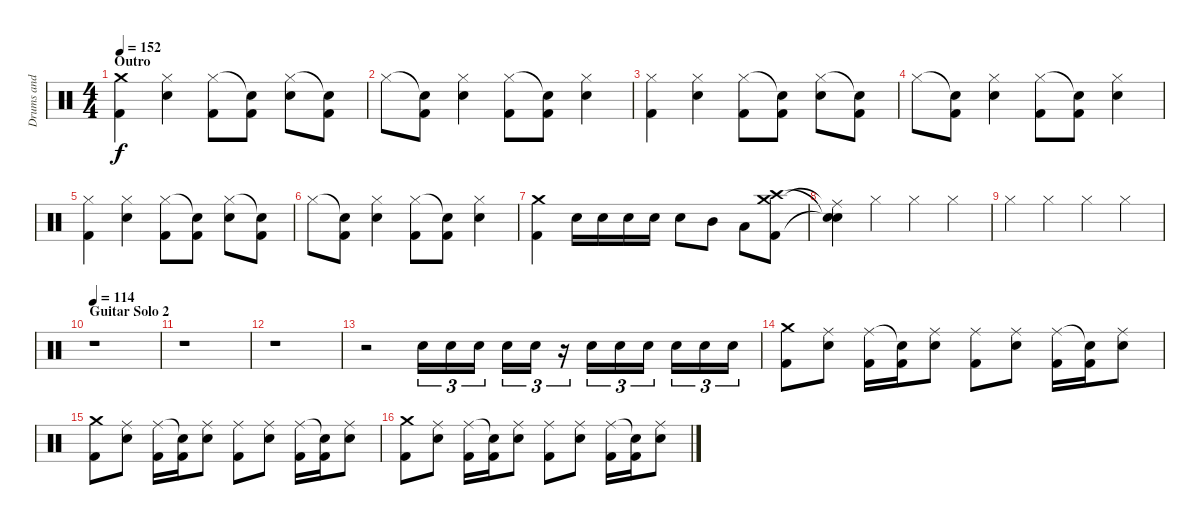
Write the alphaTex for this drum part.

\track ("Drums and Percussion" "Drums and ") {instrument percussion}
\staff {score}
\articulation defaults
\ts (4 4)
\section ("" "Outro")
\tempo 152
\clef neutral
\ks c
("Crash medium (hit)" "Kick (hit) 2").4{dy f} ("Hi-Hat (closed)" "Snare (hit) 2").4 ("Hi-Hat (closed)" "Kick (hit) 2").8 ("Snare (hit)"{t} "Kick (hit) 2").8 ("Hi-Hat (closed)" "Snare (hit) 2").8 ("Snare (hit)"{t} "Kick (hit) 2").8 |
"Hi-Hat (closed)".8 ("Snare (hit)"{t} "Kick (hit) 2").8 ("Hi-Hat (closed)" "Snare (hit) 2").4 ("Hi-Hat (closed)" "Kick (hit) 2").8 ("Snare (hit)"{t} "Kick (hit) 2").8 ("Hi-Hat (closed)" "Snare (hit) 2").4 |
("Hi-Hat (closed)" "Kick (hit) 2").4 ("Hi-Hat (closed)" "Snare (hit) 2").4 ("Hi-Hat (closed)" "Kick (hit) 2").8 ("Snare (hit)"{t} "Kick (hit) 2").8 ("Hi-Hat (closed)" "Snare (hit) 2").8 ("Snare (hit)"{t} "Kick (hit) 2").8 |
"Hi-Hat (closed)".8 ("Snare (hit)"{t} "Kick (hit) 2").8 ("Hi-Hat (closed)" "Snare (hit) 2").4 ("Hi-Hat (closed)" "Kick (hit) 2").8 ("Snare (hit)"{t} "Kick (hit) 2").8 ("Hi-Hat (closed)" "Snare (hit) 2").4 |
("Hi-Hat (closed)" "Kick (hit) 2").4 ("Hi-Hat (closed)" "Snare (hit) 2").4 ("Hi-Hat (closed)" "Kick (hit) 2").8 ("Snare (hit)"{t} "Kick (hit) 2").8 ("Hi-Hat (closed)" "Snare (hit) 2").8 ("Snare (hit)"{t} "Kick (hit) 2").8 |
"Hi-Hat (closed)".8 ("Snare (hit)"{t} "Kick (hit) 2").8 ("Hi-Hat (closed)" "Snare (hit) 2").4 ("Hi-Hat (closed)" "Kick (hit) 2").8 ("Snare (hit)"{t} "Kick (hit) 2").8 ("Hi-Hat (closed)" "Snare (hit) 2").4 |
("Crash medium (hit)" "Kick (hit) 2").4 "Snare (hit) 2".16 "Snare (hit) 2".16 "Snare (hit) 2".16 "Snare (hit) 2".16 "Snare (hit) 2".8 "Mid Tom (hit)".8 "Low Tom (hit)".8 ("Crash medium (hit)" "Crash high (hit)" "Kick (hit) 2").8 |
("Ride (middle)"{t} "Snare (hit)"{t} "Snare (hit)"{t}).4 "Hi-Hat (closed)".4 "Hi-Hat (closed)".4 "Hi-Hat (closed)".4 |
"Hi-Hat (closed)".4 "Hi-Hat (closed)".4 "Hi-Hat (closed)".4 "Hi-Hat (closed)".4 |
\section ("" "Guitar Solo 2")
\tempo 114
r.1 |
r.1 |
r.1 |
r.2 "Snare (hit) 2".16{tu (3 2)} "Snare (hit) 2".16{tu (3 2)} "Snare (hit) 2".16{tu (3 2)} "Snare (hit) 2".16{tu (3 2)} "Snare (hit) 2".16{tu (3 2)} r.16{tu (3 2)} "Snare (hit) 2".16{tu (3 2)} "Snare (hit) 2".16{tu (3 2)} "Snare (hit) 2".16{tu (3 2)} "Snare (hit) 2".16{tu (3 2)} "Snare (hit) 2".16{tu (3 2)} "Snare (hit) 2".16{tu (3 2)} |
("Crash medium (hit)" "Kick (hit) 2").8 ("Ride (middle)" "Snare (hit) 2").8 ("Ride (middle)" "Kick (hit) 2").16 ("Snare (hit)"{t} "Kick (hit) 2").16 ("Ride (middle)" "Snare (hit) 2").8 ("Ride (middle)" "Kick (hit) 2").8 ("Ride (middle)" "Snare (hit) 2").8 ("Ride (middle)" "Kick (hit) 2").16 ("Snare (hit)"{t} "Kick (hit) 2").16 ("Ride (middle)" "Snare (hit) 2").8 |
("Crash medium (hit)" "Kick (hit) 2").8 ("Ride (middle)" "Snare (hit) 2").8 ("Ride (middle)" "Kick (hit) 2").16 ("Snare (hit)"{t} "Kick (hit) 2").16 ("Ride (middle)" "Snare (hit) 2").8 ("Ride (middle)" "Kick (hit) 2").8 ("Ride (middle)" "Snare (hit) 2").8 ("Ride (middle)" "Kick (hit) 2").16 ("Snare (hit)"{t} "Kick (hit) 2").16 ("Ride (middle)" "Snare (hit) 2").8 |
("Crash medium (hit)" "Kick (hit) 2").8 ("Ride (middle)" "Snare (hit) 2").8 ("Ride (middle)" "Kick (hit) 2").16 ("Snare (hit)"{t} "Kick (hit) 2").16 ("Ride (middle)" "Snare (hit) 2").8 ("Ride (middle)" "Kick (hit) 2").8 ("Ride (middle)" "Snare (hit) 2").8 ("Ride (middle)" "Kick (hit) 2").16 ("Snare (hit)"{t} "Kick (hit) 2").16 ("Ride (middle)" "Snare (hit) 2").8
